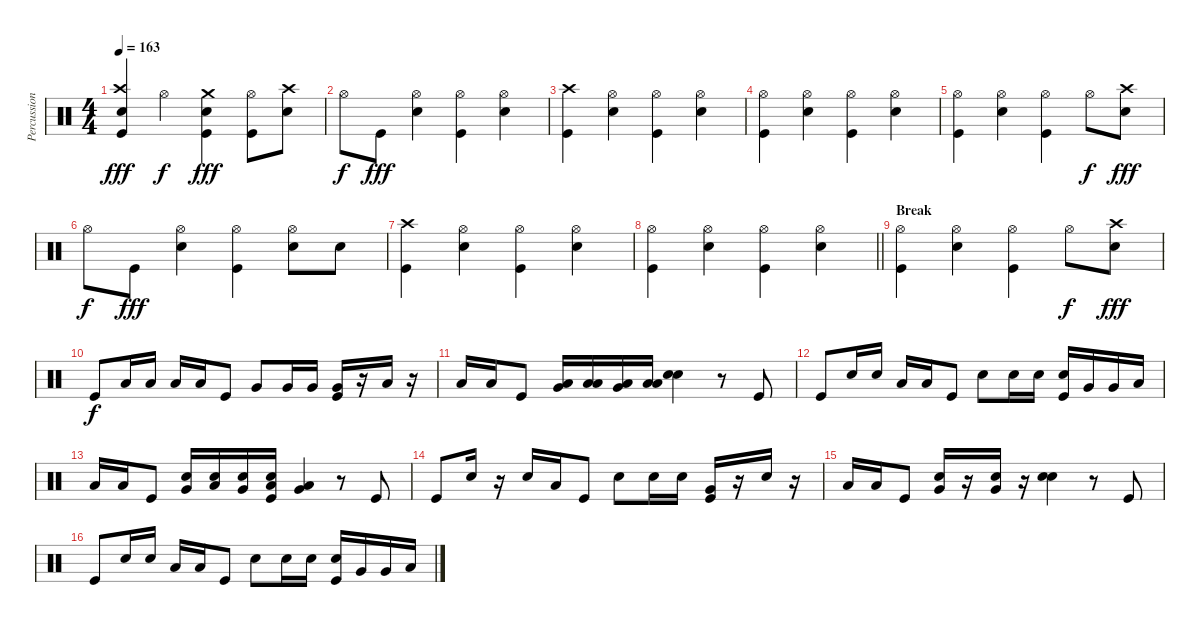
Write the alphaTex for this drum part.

\track ("Percussion/Nicko McBrain" "Percussion") {instrument percussion}
\staff {score}
\articulation defaults
\ts (4 4)
\tempo 163
\clef neutral
\ks c
("Kick (hit)" "Crash high (hit)" "Electric Snare (hit)").4{dy fff} "Hi-Hat (open)".4{dy f} ("Kick (hit)" "Crash medium (hit)" "Electric Snare (hit)").4{dy fff} ("Hi-Hat (open)" "Kick (hit)").8 ("Electric Snare (hit)" "Crash high (hit)").8 |
"Hi-Hat (open)".8{dy f} "Kick (hit)".8{dy fff} ("Hi-Hat (open)" "Electric Snare (hit)").4 ("Hi-Hat (open)" "Kick (hit)").4 ("Hi-Hat (open)" "Electric Snare (hit)").4 |
("Crash high (hit)" "Kick (hit)").4 ("Hi-Hat (open)" "Electric Snare (hit)").4 ("Hi-Hat (open)" "Kick (hit)").4 ("Hi-Hat (open)" "Electric Snare (hit)").4 |
("Hi-Hat (open)" "Kick (hit)").4 ("Hi-Hat (open)" "Electric Snare (hit)").4 ("Hi-Hat (open)" "Kick (hit)").4 ("Hi-Hat (open)" "Electric Snare (hit)").4 |
("Hi-Hat (open)" "Kick (hit)").4 ("Hi-Hat (open)" "Electric Snare (hit)").4 ("Hi-Hat (open)" "Kick (hit)").4 "Hi-Hat (open)".8{dy f} ("Crash high (hit)" "Electric Snare (hit)").8{dy fff} |
"Hi-Hat (open)".8{dy f} "Kick (hit)".8{dy fff} ("Hi-Hat (open)" "Electric Snare (hit)").4 ("Hi-Hat (open)" "Kick (hit)").4 ("Hi-Hat (open)" "Electric Snare (hit)").8 "Electric Snare (hit)".8 |
("Crash high (hit)" "Kick (hit)").4 ("Hi-Hat (open)" "Electric Snare (hit)").4 ("Hi-Hat (open)" "Kick (hit)").4 ("Hi-Hat (open)" "Electric Snare (hit)").4 |
\barLineRight lightlight
("Hi-Hat (open)" "Kick (hit)").4 ("Hi-Hat (open)" "Electric Snare (hit)").4 ("Hi-Hat (open)" "Kick (hit)").4 ("Hi-Hat (open)" "Electric Snare (hit)").4 |
\section ("" "Break")
("Hi-Hat (open)" "Kick (hit)").4 ("Hi-Hat (open)" "Electric Snare (hit)").4 ("Hi-Hat (open)" "Kick (hit)").4 "Hi-Hat (open)".8{dy f} ("Crash high (hit)" "Electric Snare (hit)").8{dy fff} |
"Kick (hit)".8{dy f} "Low Tom (hit)".16 "Low Tom (hit)".16 "Low Tom (hit)".16 "Low Tom (hit)".16 "Kick (hit)".8 "Very Low Tom (hit)".8 "Very Low Tom (hit)".16 "Very Low Tom (hit)".16 ("Very Low Tom (hit)" "Kick (hit)").16 r.16 "Low Floor Tom (hit)".16 r.16 |
"Low Floor Tom (hit)".16 "Low Floor Tom (hit)".16 "Kick (hit)".8 ("Low Tom (hit)" "Very Low Tom (hit)").16 ("Low Tom (hit)" "Low Floor Tom (hit)").16 ("Low Tom (hit)" "Very Low Tom (hit)").16 ("Low Tom (hit)" "Low Floor Tom (hit)").16 ("Snare (hit) 2" "Electric Snare (hit)").4 r.8 "Kick (hit)".8 |
"Kick (hit)".8 "Electric Snare (hit)".16 "Electric Snare (hit)".16 "Low Tom (hit)".16 "Low Tom (hit)".16 "Kick (hit)".8 "Snare (hit) 2".8 "Snare (hit) 2".16 "Electric Snare (hit)".16 ("Electric Snare (hit)" "Kick (hit)").16 "Very Low Tom (hit)".16 "Very Low Tom (hit)".16 "Low Floor Tom (hit)".16 |
"Low Floor Tom (hit)".16 "Low Floor Tom (hit)".16 "Kick (hit)".8 ("Electric Snare (hit)" "Very Low Tom (hit)").16 ("Electric Snare (hit)" "Low Floor Tom (hit)").16 ("Snare (hit) 2" "Very Low Tom (hit)").16 ("Snare (hit) 2" "Low Floor Tom (hit)" "Kick (hit)").16 ("Low Floor Tom (hit)" "Very Low Tom (hit)").4 r.8 "Kick (hit)".8 |
"Kick (hit)".8 "Electric Snare (hit)".16 r.16 "Electric Snare (hit)".16 "Low Tom (hit)".16 "Kick (hit)".8 "Snare (hit) 2".8 "Snare (hit) 2".16 "Electric Snare (hit)".16 ("Very Low Tom (hit)" "Kick (hit)").16 r.16 "Electric Snare (hit)".16 r.16 |
"Low Floor Tom (hit)".16 "Low Floor Tom (hit)".16 "Kick (hit)".8 ("Electric Snare (hit)" "Very Low Tom (hit)").16 r.16 ("Snare (hit) 2" "Very Low Tom (hit)").16 r.16 ("Snare (hit) 2" "Electric Snare (hit)").4 r.8 "Kick (hit)".8 |
"Kick (hit)".8 "Electric Snare (hit)".16 "Electric Snare (hit)".16 "Low Tom (hit)".16 "Low Tom (hit)".16 "Kick (hit)".8 "Snare (hit) 2".8 "Snare (hit) 2".16 "Electric Snare (hit)".16 ("Electric Snare (hit)" "Kick (hit)").16 "Very Low Tom (hit)".16 "Very Low Tom (hit)".16 "Low Floor Tom (hit)".16
